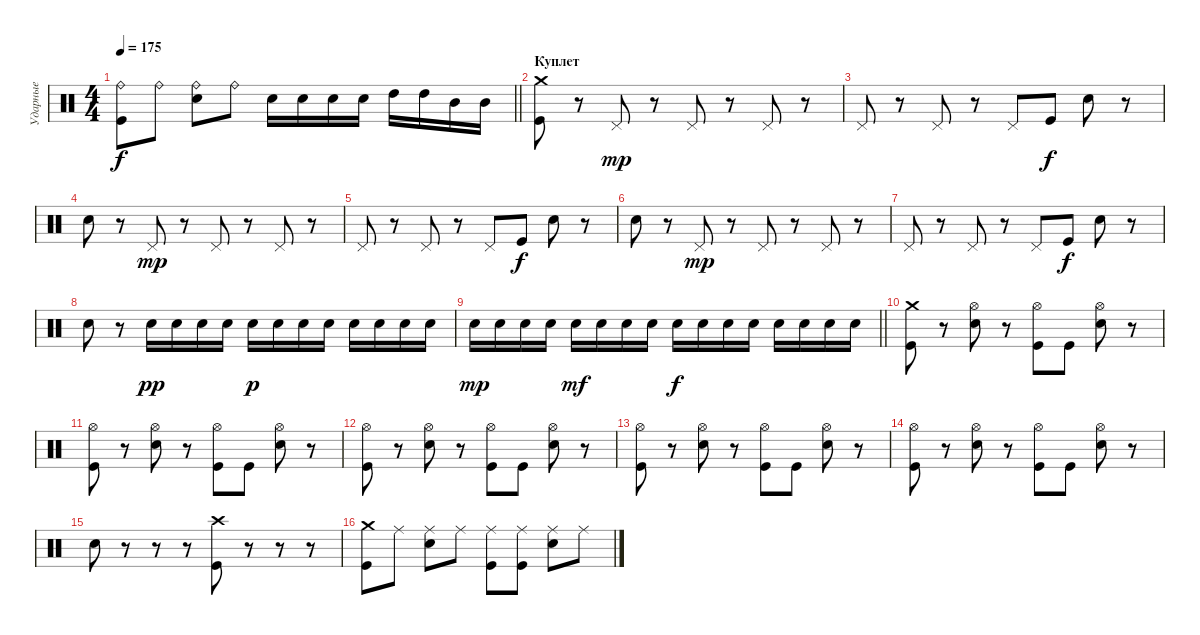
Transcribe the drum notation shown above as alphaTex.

\track ("Ударные" "Ударные") {instrument percussion}
\staff {score}
\articulation defaults
\ts (4 4)
\tempo 175
\clef neutral
\barLineRight lightlight
\ks c
("Ride (bell)" "Kick (hit)").8{dy f} "Ride (bell)".8 ("Ride (bell)" "Electric Snare (hit)").8 "Ride (bell)".8 "Electric Snare (hit)".16 "Electric Snare (hit)".16 "Electric Snare (hit)".16 "Electric Snare (hit)".16 "High Tom (hit)".16 "High Tom (hit)".16 "Mid Tom (hit)".16 "Mid Tom (hit)".16 |
\section ("" "Куплет")
("Crash medium (hit)" "Kick (hit)").8 r.8 "Pedal Hi-Hat (hit)".8{dy mp} r.8 "Pedal Hi-Hat (hit)".8 r.8 "Pedal Hi-Hat (hit)".8 r.8 |
"Pedal Hi-Hat (hit)".8 r.8 "Pedal Hi-Hat (hit)".8 r.8 "Pedal Hi-Hat (hit)".8 "Kick (hit)".8{dy f} "Electric Snare (hit)".8 r.8 |
"Electric Snare (hit)".8 r.8 "Pedal Hi-Hat (hit)".8{dy mp} r.8 "Pedal Hi-Hat (hit)".8 r.8 "Pedal Hi-Hat (hit)".8 r.8 |
"Pedal Hi-Hat (hit)".8 r.8 "Pedal Hi-Hat (hit)".8 r.8 "Pedal Hi-Hat (hit)".8 "Kick (hit)".8{dy f} "Electric Snare (hit)".8 r.8 |
"Electric Snare (hit)".8 r.8 "Pedal Hi-Hat (hit)".8{dy mp} r.8 "Pedal Hi-Hat (hit)".8 r.8 "Pedal Hi-Hat (hit)".8 r.8 |
"Pedal Hi-Hat (hit)".8 r.8 "Pedal Hi-Hat (hit)".8 r.8 "Pedal Hi-Hat (hit)".8 "Kick (hit)".8{dy f} "Electric Snare (hit)".8 r.8 |
"Electric Snare (hit)".8 r.8 "Electric Snare (hit)".16{dy pp} "Electric Snare (hit)".16 "Electric Snare (hit)".16 "Electric Snare (hit)".16 "Electric Snare (hit)".16{dy p} "Electric Snare (hit)".16 "Electric Snare (hit)".16 "Electric Snare (hit)".16 "Electric Snare (hit)".16 "Electric Snare (hit)".16 "Electric Snare (hit)".16 "Electric Snare (hit)".16 |
\barLineRight lightlight "Electric Snare (hit)".16{dy mp} "Electric Snare (hit)".16 "Electric Snare (hit)".16 "Electric Snare (hit)".16 "Electric Snare (hit)".16{dy mf} "Electric Snare (hit)".16 "Electric Snare (hit)".16 "Electric Snare (hit)".16 "Electric Snare (hit)".16{dy f} "Electric Snare (hit)".16 "Electric Snare (hit)".16 "Electric Snare (hit)".16 "Electric Snare (hit)".16 "Electric Snare (hit)".16 "Electric Snare (hit)".16 "Electric Snare (hit)".16
|
\section ("" " ")
("Crash medium (hit)" "Kick (hit)").8 r.8 ("Hi-Hat (open)" "Electric Snare (hit)").8 r.8 ("Hi-Hat (open)" "Kick (hit)").8 "Kick (hit)".8 ("Hi-Hat (open)" "Electric Snare (hit)").8 r.8 |
("Hi-Hat (open)" "Kick (hit)").8 r.8 ("Hi-Hat (open)" "Electric Snare (hit)").8 r.8 ("Hi-Hat (open)" "Kick (hit)").8 "Kick (hit)".8 ("Hi-Hat (open)" "Electric Snare (hit)").8 r.8 |
("Hi-Hat (open)" "Kick (hit)").8 r.8 ("Hi-Hat (open)" "Electric Snare (hit)").8 r.8 ("Hi-Hat (open)" "Kick (hit)").8 "Kick (hit)".8 ("Hi-Hat (open)" "Electric Snare (hit)").8 r.8 |
("Hi-Hat (open)" "Kick (hit)").8 r.8 ("Hi-Hat (open)" "Electric Snare (hit)").8 r.8 ("Hi-Hat (open)" "Kick (hit)").8 "Kick (hit)".8 ("Hi-Hat (open)" "Electric Snare (hit)").8 r.8 |
("Hi-Hat (open)" "Kick (hit)").8 r.8 ("Hi-Hat (open)" "Electric Snare (hit)").8 r.8 ("Hi-Hat (open)" "Kick (hit)").8 "Kick (hit)".8 ("Hi-Hat (open)" "Electric Snare (hit)").8 r.8 |
"Electric Snare (hit)".8 r.8 r.8 r.8 ("Crash high (hit)" "Kick (hit)").8 r.8 r.8 r.8 |
("Crash medium (hit)" "Kick (hit)").8 "Ride (middle)".8 ("Ride (middle)" "Electric Snare (hit)").8 "Ride (middle)".8 ("Ride (middle)" "Kick (hit)").8 ("Ride (middle)" "Kick (hit)").8 ("Ride (middle)" "Electric Snare (hit)").8 "Ride (middle)".8
